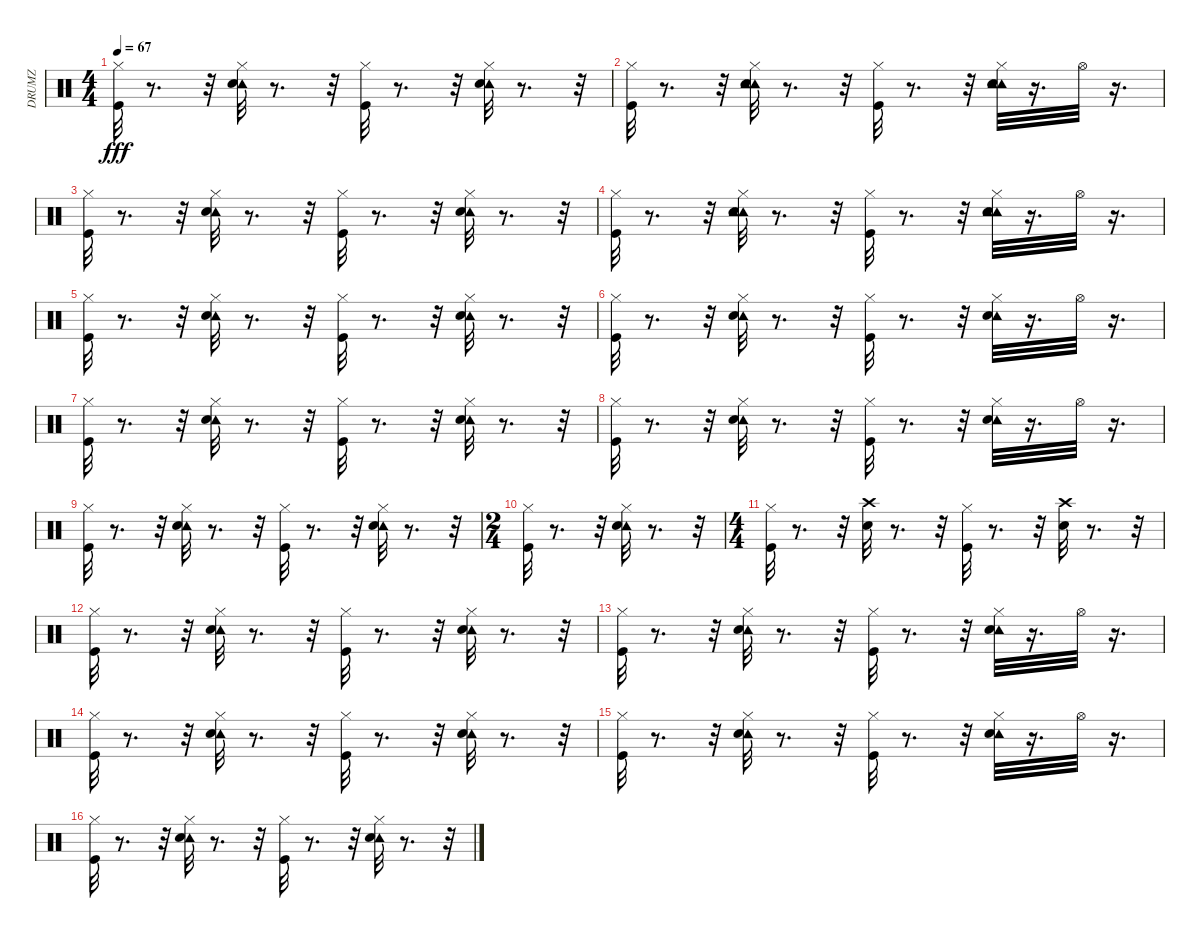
\track ("DRUMZ" "DRUMZ") {instrument percussion}
\staff {score}
\articulation defaults
\ts (4 4)
\tempo 67
\clef neutral
\ks c
("Hi-Hat (closed)" "Kick (hit)").32{dy fff} r.8{d} r.32 ("Tambourine (hit)" "Hi-Hat (closed)" "Snare (hit) 2").32 r.8{d} r.32 ("Hi-Hat (closed)" "Kick (hit)").32 r.8{d} r.32 ("Tambourine (hit)" "Hi-Hat (closed)" "Snare (hit) 2").32 r.8{d} r.32 |
("Hi-Hat (closed)" "Kick (hit)").32 r.8{d} r.32 ("Tambourine (hit)" "Tambourine (hit)" "Hi-Hat (closed)" "Snare (hit) 2").32 r.8{d} r.32 ("Hi-Hat (closed)" "Kick (hit)").32 r.8{d} r.32 ("Tambourine (hit)" "Tambourine (hit)" "Hi-Hat (closed)" "Snare (hit) 2").32 r.16{d} "Hi-Hat (open)".32 r.16{d} |
("Hi-Hat (closed)" "Kick (hit)").32 r.8{d} r.32 ("Tambourine (hit)" "Hi-Hat (closed)" "Snare (hit) 2").32 r.8{d} r.32 ("Hi-Hat (closed)" "Kick (hit)").32 r.8{d} r.32 ("Tambourine (hit)" "Hi-Hat (closed)" "Snare (hit) 2").32 r.8{d} r.32 |
("Hi-Hat (closed)" "Kick (hit)").32 r.8{d} r.32 ("Tambourine (hit)" "Tambourine (hit)" "Hi-Hat (closed)" "Snare (hit) 2").32 r.8{d} r.32 ("Hi-Hat (closed)" "Kick (hit)").32 r.8{d} r.32 ("Tambourine (hit)" "Tambourine (hit)" "Hi-Hat (closed)" "Snare (hit) 2").32 r.16{d} "Hi-Hat (open)".32 r.16{d} |
("Hi-Hat (closed)" "Kick (hit)").32 r.8{d} r.32 ("Tambourine (hit)" "Hi-Hat (closed)" "Snare (hit) 2").32 r.8{d} r.32 ("Hi-Hat (closed)" "Kick (hit)").32 r.8{d} r.32 ("Tambourine (hit)" "Hi-Hat (closed)" "Snare (hit) 2").32 r.8{d} r.32 |
("Hi-Hat (closed)" "Kick (hit)").32 r.8{d} r.32 ("Tambourine (hit)" "Hi-Hat (closed)" "Snare (hit) 2").32 r.8{d} r.32 ("Hi-Hat (closed)" "Kick (hit)").32 r.8{d} r.32 ("Tambourine (hit)" "Hi-Hat (closed)" "Snare (hit) 2").32 r.16{d} "Hi-Hat (open)".32 r.16{d} |
("Hi-Hat (closed)" "Kick (hit)").32 r.8{d} r.32 ("Tambourine (hit)" "Hi-Hat (closed)" "Snare (hit) 2").32 r.8{d} r.32 ("Kick (hit)" "Hi-Hat (closed)").32 r.8{d} r.32 ("Tambourine (hit)" "Snare (hit) 2" "Hi-Hat (closed)").32 r.8{d} r.32 |
("Hi-Hat (closed)" "Kick (hit)").32 r.8{d} r.32 ("Tambourine (hit)" "Hi-Hat (closed)" "Snare (hit) 2").32 r.8{d} r.32 ("Hi-Hat (closed)" "Kick (hit)").32 r.8{d} r.32 ("Tambourine (hit)" "Hi-Hat (closed)" "Snare (hit) 2").32 r.16{d} "Hi-Hat (open)".32 r.16{d} |
("Hi-Hat (closed)" "Kick (hit)").32 r.8{d} r.32 ("Tambourine (hit)" "Hi-Hat (closed)" "Snare (hit) 2").32 r.8{d} r.32 ("Hi-Hat (closed)" "Kick (hit)").32 r.8{d} r.32 ("Tambourine (hit)" "Hi-Hat (closed)" "Snare (hit) 2").32 r.8{d} r.32 |
\ts (2 4)
("Hi-Hat (closed)" "Kick (hit)").32 r.8{d} r.32 ("Tambourine (hit)" "Hi-Hat (closed)" "Snare (hit) 2").32 r.8{d} r.32 |
\ts (4 4)
("Kick (hit)" "Hi-Hat (closed)").32 r.8{d} r.32 ("Crash high (hit)" "Snare (hit) 2").32 r.8{d} r.32 ("Hi-Hat (closed)" "Kick (hit)").32 r.8{d} r.32 ("Crash high (hit)" "Snare (hit) 2").32 r.8{d} r.32 |
("Kick (hit)" "Hi-Hat (closed)").32 r.8{d} r.32 ("Tambourine (hit)" "Hi-Hat (closed)" "Snare (hit) 2").32 r.8{d} r.32 ("Hi-Hat (closed)" "Kick (hit)").32 r.8{d} r.32 ("Tambourine (hit)" "Hi-Hat (closed)" "Snare (hit) 2").32 r.8{d} r.32 |
("Kick (hit)" "Hi-Hat (closed)").32 r.8{d} r.32 ("Tambourine (hit)" "Hi-Hat (closed)" "Snare (hit) 2").32 r.8{d} r.32 ("Hi-Hat (closed)" "Kick (hit)").32 r.8{d} r.32 ("Tambourine (hit)" "Hi-Hat (closed)" "Snare (hit) 2").32 r.16{d} "Hi-Hat (open)".32 r.16{d} |
("Hi-Hat (closed)" "Kick (hit)").32 r.8{d} r.32 ("Tambourine (hit)" "Snare (hit) 2" "Hi-Hat (closed)").32 r.8{d} r.32 ("Hi-Hat (closed)" "Kick (hit)").32 r.8{d} r.32 ("Tambourine (hit)" "Hi-Hat (closed)" "Snare (hit) 2").32 r.8{d} r.32 |
("Kick (hit)" "Hi-Hat (closed)").32 r.8{d} r.32 ("Tambourine (hit)" "Hi-Hat (closed)" "Snare (hit) 2").32 r.8{d} r.32 ("Hi-Hat (closed)" "Kick (hit)").32 r.8{d} r.32 ("Tambourine (hit)" "Hi-Hat (closed)" "Snare (hit) 2").32 r.16{d} "Hi-Hat (open)".32 r.16{d} |
("Kick (hit)" "Hi-Hat (closed)").32 r.8{d} r.32 ("Tambourine (hit)" "Hi-Hat (closed)" "Snare (hit) 2").32 r.8{d} r.32 ("Hi-Hat (closed)" "Kick (hit)").32 r.8{d} r.32 ("Tambourine (hit)" "Hi-Hat (closed)" "Snare (hit) 2").32 r.8{d} r.32
